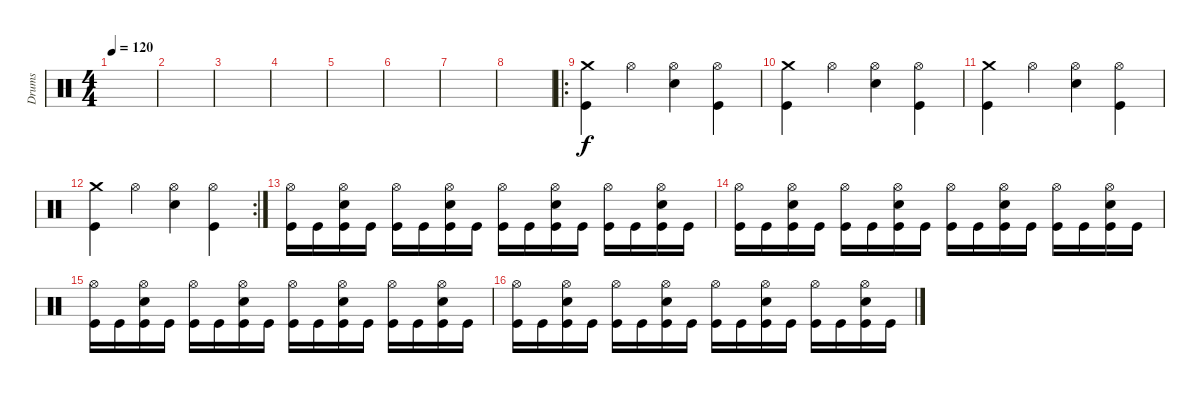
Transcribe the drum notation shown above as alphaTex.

\track ("Drums" "Drums") {instrument percussion}
\staff {score}
\articulation defaults
\ts (4 4)
\tempo 120
\clef neutral
\ks c
|
|
|
|
|
|
|
|
\ro
("Crash medium (hit)" "Kick (hit)").4 "Hi-Hat (open)".4 ("Hi-Hat (open)" "Snare (hit) 2").4 ("Hi-Hat (open)" "Kick (hit)").4 |
("Crash medium (hit)" "Kick (hit)").4 "Hi-Hat (open)".4 ("Hi-Hat (open)" "Snare (hit) 2").4 ("Hi-Hat (open)" "Kick (hit)").4 |
("Crash medium (hit)" "Kick (hit)").4 "Hi-Hat (open)".4 ("Hi-Hat (open)" "Snare (hit) 2").4 ("Hi-Hat (open)" "Kick (hit)").4 |
\rc 2
("Crash medium (hit)" "Kick (hit)").4 "Hi-Hat (open)".4 ("Hi-Hat (open)" "Snare (hit) 2").4 ("Hi-Hat (open)" "Kick (hit)").4 |
("Hi-Hat (open)" "Kick (hit)").16 "Kick (hit)".16 ("Hi-Hat (open)" "Snare (hit) 2" "Kick (hit)").16 "Kick (hit)".16 ("Hi-Hat (open)" "Kick (hit)").16 "Kick (hit)".16 ("Hi-Hat (open)" "Snare (hit) 2" "Kick (hit)").16 "Kick (hit)".16 ("Hi-Hat (open)" "Kick (hit)").16 "Kick (hit)".16 ("Hi-Hat (open)" "Snare (hit) 2" "Kick (hit)").16 "Kick (hit)".16 ("Hi-Hat (open)" "Kick (hit)").16 "Kick (hit)".16 ("Hi-Hat (open)" "Snare (hit) 2" "Kick (hit)").16 "Kick (hit)".16 |
("Hi-Hat (open)" "Kick (hit)").16 "Kick (hit)".16 ("Hi-Hat (open)" "Snare (hit) 2" "Kick (hit)").16 "Kick (hit)".16 ("Hi-Hat (open)" "Kick (hit)").16 "Kick (hit)".16 ("Hi-Hat (open)" "Snare (hit) 2" "Kick (hit)").16 "Kick (hit)".16 ("Hi-Hat (open)" "Kick (hit)").16 "Kick (hit)".16 ("Hi-Hat (open)" "Snare (hit) 2" "Kick (hit)").16 "Kick (hit)".16 ("Hi-Hat (open)" "Kick (hit)").16 "Kick (hit)".16 ("Hi-Hat (open)" "Snare (hit) 2" "Kick (hit)").16 "Kick (hit)".16 |
("Hi-Hat (open)" "Kick (hit)").16 "Kick (hit)".16 ("Hi-Hat (open)" "Snare (hit) 2" "Kick (hit)").16 "Kick (hit)".16 ("Hi-Hat (open)" "Kick (hit)").16 "Kick (hit)".16 ("Hi-Hat (open)" "Snare (hit) 2" "Kick (hit)").16 "Kick (hit)".16 ("Hi-Hat (open)" "Kick (hit)").16 "Kick (hit)".16 ("Hi-Hat (open)" "Snare (hit) 2" "Kick (hit)").16 "Kick (hit)".16 ("Hi-Hat (open)" "Kick (hit)").16 "Kick (hit)".16 ("Hi-Hat (open)" "Snare (hit) 2" "Kick (hit)").16 "Kick (hit)".16 |
("Hi-Hat (open)" "Kick (hit)").16 "Kick (hit)".16 ("Hi-Hat (open)" "Snare (hit) 2" "Kick (hit)").16 "Kick (hit)".16 ("Hi-Hat (open)" "Kick (hit)").16 "Kick (hit)".16 ("Hi-Hat (open)" "Snare (hit) 2" "Kick (hit)").16 "Kick (hit)".16 ("Hi-Hat (open)" "Kick (hit)").16 "Kick (hit)".16 ("Hi-Hat (open)" "Snare (hit) 2" "Kick (hit)").16 "Kick (hit)".16 ("Hi-Hat (open)" "Kick (hit)").16 "Kick (hit)".16 ("Hi-Hat (open)" "Snare (hit) 2" "Kick (hit)").16 "Kick (hit)".16
